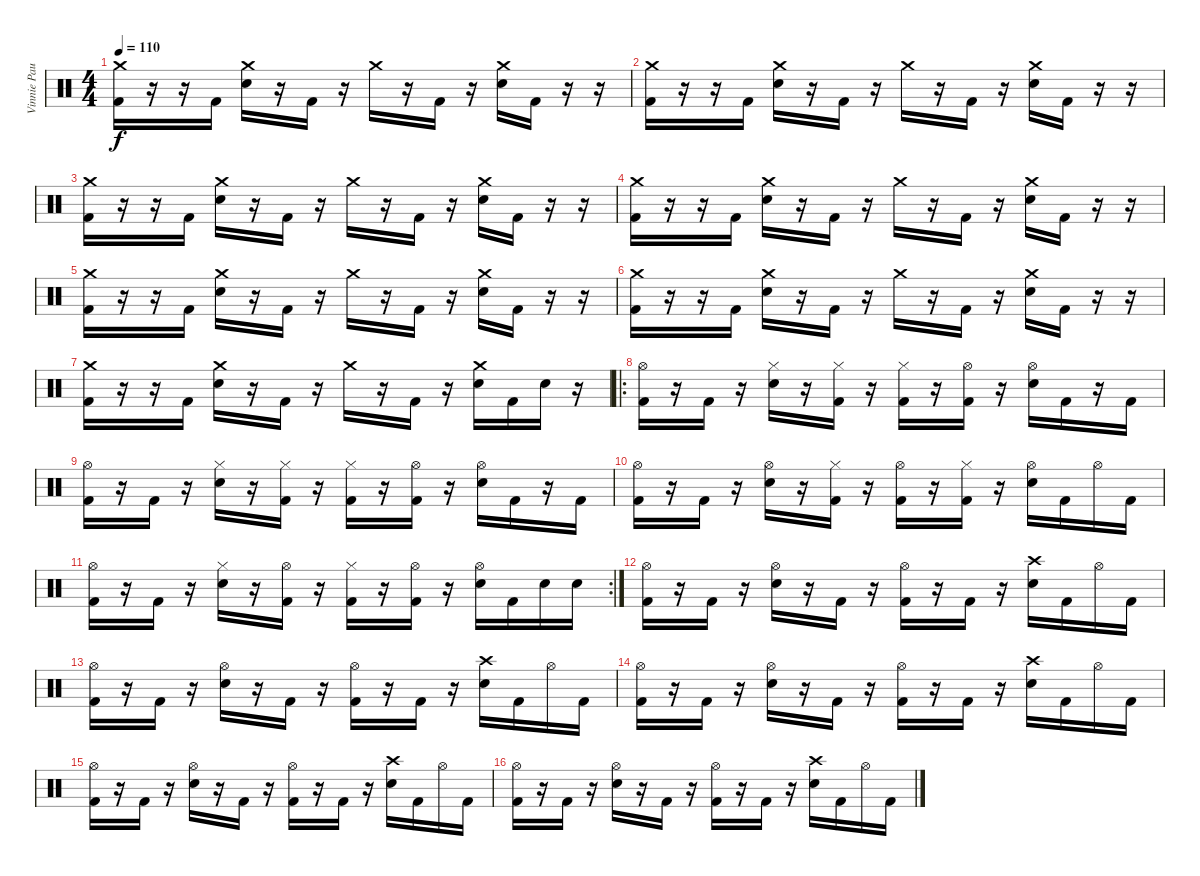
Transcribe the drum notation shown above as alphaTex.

\track ("Vinnie Paul" "Vinnie Pau") {instrument percussion}
\staff {score}
\articulation defaults
\ts (4 4)
\tempo 110
\clef neutral
\ks c
("Crash medium (hit)" "Kick (hit) 2").16{dy f} r.16 r.16 "Kick (hit) 2".16 ("Crash medium (hit)" "Electric Snare (hit)").16 r.16 "Kick (hit) 2".16 r.16 "Crash medium (hit)".16 r.16 "Kick (hit) 2".16 r.16 ("Crash medium (hit)" "Electric Snare (hit)").16 "Kick (hit) 2".16 r.16 r.16 |
("Crash medium (hit)" "Kick (hit) 2").16 r.16 r.16 "Kick (hit) 2".16 ("Crash medium (hit)" "Electric Snare (hit)").16 r.16 "Kick (hit) 2".16 r.16 "Crash medium (hit)".16 r.16 "Kick (hit) 2".16 r.16 ("Crash medium (hit)" "Electric Snare (hit)").16 "Kick (hit) 2".16 r.16 r.16 |
("Crash medium (hit)" "Kick (hit) 2").16 r.16 r.16 "Kick (hit) 2".16 ("Crash medium (hit)" "Electric Snare (hit)").16 r.16 "Kick (hit) 2".16 r.16 "Crash medium (hit)".16 r.16 "Kick (hit) 2".16 r.16 ("Crash medium (hit)" "Electric Snare (hit)").16 "Kick (hit) 2".16 r.16 r.16 |
("Crash medium (hit)" "Kick (hit) 2").16 r.16 r.16 "Kick (hit) 2".16 ("Crash medium (hit)" "Electric Snare (hit)").16 r.16 "Kick (hit) 2".16 r.16 "Crash medium (hit)".16 r.16 "Kick (hit) 2".16 r.16 ("Crash medium (hit)" "Electric Snare (hit)").16 "Kick (hit) 2".16 r.16 r.16 |
("Crash medium (hit)" "Kick (hit) 2").16 r.16 r.16 "Kick (hit) 2".16 ("Crash medium (hit)" "Electric Snare (hit)").16 r.16 "Kick (hit) 2".16 r.16 "Crash medium (hit)".16 r.16 "Kick (hit) 2".16 r.16 ("Crash medium (hit)" "Electric Snare (hit)").16 "Kick (hit) 2".16 r.16 r.16 |
("Crash medium (hit)" "Kick (hit) 2").16 r.16 r.16 "Kick (hit) 2".16 ("Crash medium (hit)" "Electric Snare (hit)").16 r.16 "Kick (hit) 2".16 r.16 "Crash medium (hit)".16 r.16 "Kick (hit) 2".16 r.16 ("Crash medium (hit)" "Electric Snare (hit)").16 "Kick (hit) 2".16 r.16 r.16 |
("Crash medium (hit)" "Kick (hit) 2").16 r.16 r.16 "Kick (hit) 2".16 ("Crash medium (hit)" "Electric Snare (hit)").16 r.16 "Kick (hit) 2".16 r.16 "Crash medium (hit)".16 r.16 "Kick (hit) 2".16 r.16 ("Crash medium (hit)" "Electric Snare (hit)").16 "Kick (hit) 2".16 "Electric Snare (hit)".16 r.16 |
\ro
("Hi-Hat (open)" "Kick (hit) 2").16 r.16 "Kick (hit) 2".16 r.16 ("Hi-Hat (closed)" "Electric Snare (hit)").16 r.16 ("Hi-Hat (closed)" "Kick (hit) 2").16 r.16 ("Hi-Hat (closed)" "Kick (hit) 2").16 r.16 ("Hi-Hat (open)" "Kick (hit) 2").16 r.16 ("Hi-Hat (open)" "Electric Snare (hit)").16 "Kick (hit) 2".16 r.16 "Kick (hit) 2".16 |
("Hi-Hat (open)" "Kick (hit) 2").16 r.16 "Kick (hit) 2".16 r.16 ("Hi-Hat (closed)" "Electric Snare (hit)").16 r.16 ("Hi-Hat (closed)" "Kick (hit) 2").16 r.16 ("Hi-Hat (closed)" "Kick (hit) 2").16 r.16 ("Hi-Hat (open)" "Kick (hit) 2").16 r.16 ("Hi-Hat (open)" "Electric Snare (hit)").16 "Kick (hit) 2".16 r.16 "Kick (hit) 2".16 |
("Hi-Hat (open)" "Kick (hit) 2").16 r.16 "Kick (hit) 2".16 r.16 ("Hi-Hat (open)" "Electric Snare (hit)").16 r.16 ("Hi-Hat (closed)" "Kick (hit) 2").16 r.16 ("Hi-Hat (open)" "Kick (hit) 2").16 r.16 ("Hi-Hat (closed)" "Kick (hit) 2").16 r.16 ("Hi-Hat (open)" "Electric Snare (hit)").16 "Kick (hit) 2".16 "Hi-Hat (open)".16 "Kick (hit) 2".16 |
\rc 2
("Hi-Hat (open)" "Kick (hit) 2").16 r.16 "Kick (hit) 2".16 r.16 ("Hi-Hat (closed)" "Electric Snare (hit)").16 r.16 ("Hi-Hat (open)" "Kick (hit) 2").16 r.16 ("Hi-Hat (closed)" "Kick (hit) 2").16 r.16 ("Hi-Hat (open)" "Kick (hit) 2").16 r.16 ("Hi-Hat (open)" "Electric Snare (hit)").16 "Kick (hit) 2".16 "Electric Snare (hit)".16 "Electric Snare (hit)".16 |
("Hi-Hat (open)" "Kick (hit) 2").16 r.16 "Kick (hit) 2".16 r.16 ("Hi-Hat (open)" "Electric Snare (hit)").16 r.16 "Kick (hit) 2".16 r.16 ("Hi-Hat (open)" "Kick (hit) 2").16 r.16 "Kick (hit) 2".16 r.16 ("Crash high (hit)" "Electric Snare (hit)").16 "Kick (hit) 2".16 "Hi-Hat (open)".16 "Kick (hit) 2".16 |
("Hi-Hat (open)" "Kick (hit) 2").16 r.16 "Kick (hit) 2".16 r.16 ("Hi-Hat (open)" "Electric Snare (hit)").16 r.16 "Kick (hit) 2".16 r.16 ("Hi-Hat (open)" "Kick (hit) 2").16 r.16 "Kick (hit) 2".16 r.16 ("Crash high (hit)" "Electric Snare (hit)").16 "Kick (hit) 2".16 "Hi-Hat (open)".16 "Kick (hit) 2".16 |
("Hi-Hat (open)" "Kick (hit) 2").16 r.16 "Kick (hit) 2".16 r.16 ("Hi-Hat (open)" "Electric Snare (hit)").16 r.16 "Kick (hit) 2".16 r.16 ("Hi-Hat (open)" "Kick (hit) 2").16 r.16 "Kick (hit) 2".16 r.16 ("Crash high (hit)" "Electric Snare (hit)").16 "Kick (hit) 2".16 "Hi-Hat (open)".16 "Kick (hit) 2".16 |
("Hi-Hat (open)" "Kick (hit) 2").16 r.16 "Kick (hit) 2".16 r.16 ("Hi-Hat (open)" "Electric Snare (hit)").16 r.16 "Kick (hit) 2".16 r.16 ("Hi-Hat (open)" "Kick (hit) 2").16 r.16 "Kick (hit) 2".16 r.16 ("Crash high (hit)" "Electric Snare (hit)").16 "Kick (hit) 2".16 "Hi-Hat (open)".16 "Kick (hit) 2".16 |
("Hi-Hat (open)" "Kick (hit) 2").16 r.16 "Kick (hit) 2".16 r.16 ("Hi-Hat (open)" "Electric Snare (hit)").16 r.16 "Kick (hit) 2".16 r.16 ("Hi-Hat (open)" "Kick (hit) 2").16 r.16 "Kick (hit) 2".16 r.16 ("Crash high (hit)" "Electric Snare (hit)").16 "Kick (hit) 2".16 "Hi-Hat (open)".16 "Kick (hit) 2".16
